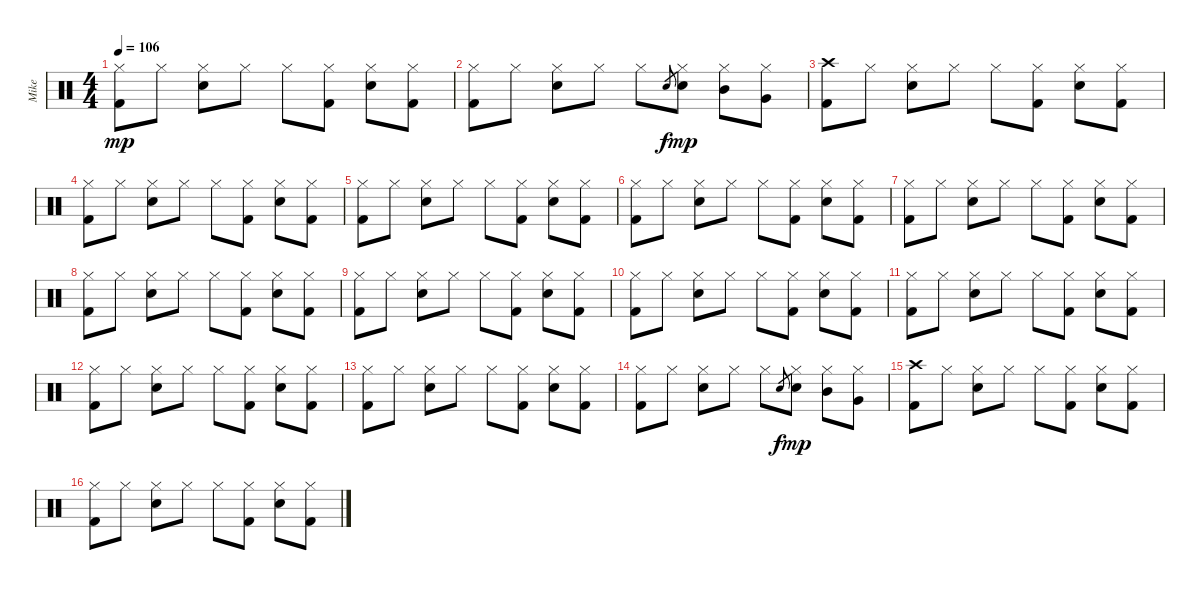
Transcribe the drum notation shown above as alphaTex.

\track ("Mike" "Mike") {instrument percussion}
\staff {score}
\articulation defaults
\ts (4 4)
\tempo 106
\clef neutral
\ks c
("Hi-Hat (closed)" "Kick (hit) 2").8{dy mp} "Hi-Hat (closed)".8 ("Hi-Hat (closed)" "Electric Snare (hit)").8 "Hi-Hat (closed)".8 "Hi-Hat (closed)".8 ("Hi-Hat (closed)" "Kick (hit) 2").8 ("Hi-Hat (closed)" "Electric Snare (hit)").8 ("Hi-Hat (closed)" "Kick (hit) 2").8 |
("Hi-Hat (closed)" "Kick (hit) 2").8 "Hi-Hat (closed)".8 ("Hi-Hat (closed)" "Electric Snare (hit)").8 "Hi-Hat (closed)".8 "Hi-Hat (closed)".8 "Electric Snare (hit)".8{gr dy f} ("Hi-Hat (closed)" "Electric Snare (hit)").8{dy mp} ("Hi-Hat (closed)" "Mid Tom (hit)").8 ("Hi-Hat (closed)" "Very Low Tom (hit)").8 |
("Crash high (hit)" "Kick (hit) 2").8 "Hi-Hat (closed)".8 ("Hi-Hat (closed)" "Electric Snare (hit)").8 "Hi-Hat (closed)".8 "Hi-Hat (closed)".8 ("Hi-Hat (closed)" "Kick (hit) 2").8 ("Hi-Hat (closed)" "Electric Snare (hit)").8 ("Hi-Hat (closed)" "Kick (hit) 2").8 |
("Hi-Hat (closed)" "Kick (hit) 2").8 "Hi-Hat (closed)".8 ("Hi-Hat (closed)" "Electric Snare (hit)").8 "Hi-Hat (closed)".8 "Hi-Hat (closed)".8 ("Hi-Hat (closed)" "Kick (hit) 2").8 ("Hi-Hat (closed)" "Electric Snare (hit)").8 ("Hi-Hat (closed)" "Kick (hit) 2").8 |
("Hi-Hat (closed)" "Kick (hit) 2").8 "Hi-Hat (closed)".8 ("Hi-Hat (closed)" "Electric Snare (hit)").8 "Hi-Hat (closed)".8 "Hi-Hat (closed)".8 ("Hi-Hat (closed)" "Kick (hit) 2").8 ("Hi-Hat (closed)" "Electric Snare (hit)").8 ("Hi-Hat (closed)" "Kick (hit) 2").8 |
("Hi-Hat (closed)" "Kick (hit) 2").8 "Hi-Hat (closed)".8 ("Hi-Hat (closed)" "Electric Snare (hit)").8 "Hi-Hat (closed)".8 "Hi-Hat (closed)".8 ("Hi-Hat (closed)" "Kick (hit) 2").8 ("Hi-Hat (closed)" "Electric Snare (hit)").8 ("Hi-Hat (closed)" "Kick (hit) 2").8 |
("Hi-Hat (closed)" "Kick (hit) 2").8 "Hi-Hat (closed)".8 ("Hi-Hat (closed)" "Electric Snare (hit)").8 "Hi-Hat (closed)".8 "Hi-Hat (closed)".8 ("Hi-Hat (closed)" "Kick (hit) 2").8 ("Hi-Hat (closed)" "Electric Snare (hit)").8 ("Hi-Hat (closed)" "Kick (hit) 2").8 |
("Hi-Hat (closed)" "Kick (hit) 2").8 "Hi-Hat (closed)".8 ("Hi-Hat (closed)" "Electric Snare (hit)").8 "Hi-Hat (closed)".8 "Hi-Hat (closed)".8 ("Hi-Hat (closed)" "Kick (hit) 2").8 ("Hi-Hat (closed)" "Electric Snare (hit)").8 ("Hi-Hat (closed)" "Kick (hit) 2").8 |
("Hi-Hat (closed)" "Kick (hit) 2").8 "Hi-Hat (closed)".8 ("Hi-Hat (closed)" "Electric Snare (hit)").8 "Hi-Hat (closed)".8 "Hi-Hat (closed)".8 ("Hi-Hat (closed)" "Kick (hit) 2").8 ("Hi-Hat (closed)" "Electric Snare (hit)").8 ("Hi-Hat (closed)" "Kick (hit) 2").8 |
("Hi-Hat (closed)" "Kick (hit) 2").8 "Hi-Hat (closed)".8 ("Hi-Hat (closed)" "Electric Snare (hit)").8 "Hi-Hat (closed)".8 "Hi-Hat (closed)".8 ("Hi-Hat (closed)" "Kick (hit) 2").8 ("Hi-Hat (closed)" "Electric Snare (hit)").8 ("Hi-Hat (closed)" "Kick (hit) 2").8 |
("Hi-Hat (closed)" "Kick (hit) 2").8 "Hi-Hat (closed)".8 ("Hi-Hat (closed)" "Electric Snare (hit)").8 "Hi-Hat (closed)".8 "Hi-Hat (closed)".8 ("Hi-Hat (closed)" "Kick (hit) 2").8 ("Hi-Hat (closed)" "Electric Snare (hit)").8 ("Hi-Hat (closed)" "Kick (hit) 2").8 |
("Hi-Hat (closed)" "Kick (hit) 2").8 "Hi-Hat (closed)".8 ("Hi-Hat (closed)" "Electric Snare (hit)").8 "Hi-Hat (closed)".8 "Hi-Hat (closed)".8 ("Hi-Hat (closed)" "Kick (hit) 2").8 ("Hi-Hat (closed)" "Electric Snare (hit)").8 ("Hi-Hat (closed)" "Kick (hit) 2").8 |
("Hi-Hat (closed)" "Kick (hit) 2").8 "Hi-Hat (closed)".8 ("Hi-Hat (closed)" "Electric Snare (hit)").8 "Hi-Hat (closed)".8 "Hi-Hat (closed)".8 ("Hi-Hat (closed)" "Kick (hit) 2").8 ("Hi-Hat (closed)" "Electric Snare (hit)").8 ("Hi-Hat (closed)" "Kick (hit) 2").8 |
("Hi-Hat (closed)" "Kick (hit) 2").8 "Hi-Hat (closed)".8 ("Hi-Hat (closed)" "Electric Snare (hit)").8 "Hi-Hat (closed)".8 "Hi-Hat (closed)".8 "Electric Snare (hit)".8{gr dy f} ("Hi-Hat (closed)" "Electric Snare (hit)").8{dy mp} ("Hi-Hat (closed)" "Mid Tom (hit)").8 ("Hi-Hat (closed)" "Very Low Tom (hit)").8 |
("Crash high (hit)" "Kick (hit) 2").8 "Hi-Hat (closed)".8 ("Hi-Hat (closed)" "Electric Snare (hit)").8 "Hi-Hat (closed)".8 "Hi-Hat (closed)".8 ("Hi-Hat (closed)" "Kick (hit) 2").8 ("Hi-Hat (closed)" "Electric Snare (hit)").8 ("Hi-Hat (closed)" "Kick (hit) 2").8 |
("Hi-Hat (closed)" "Kick (hit) 2").8 "Hi-Hat (closed)".8 ("Hi-Hat (closed)" "Electric Snare (hit)").8 "Hi-Hat (closed)".8 "Hi-Hat (closed)".8 ("Hi-Hat (closed)" "Kick (hit) 2").8 ("Hi-Hat (closed)" "Electric Snare (hit)").8 ("Hi-Hat (closed)" "Kick (hit) 2").8
